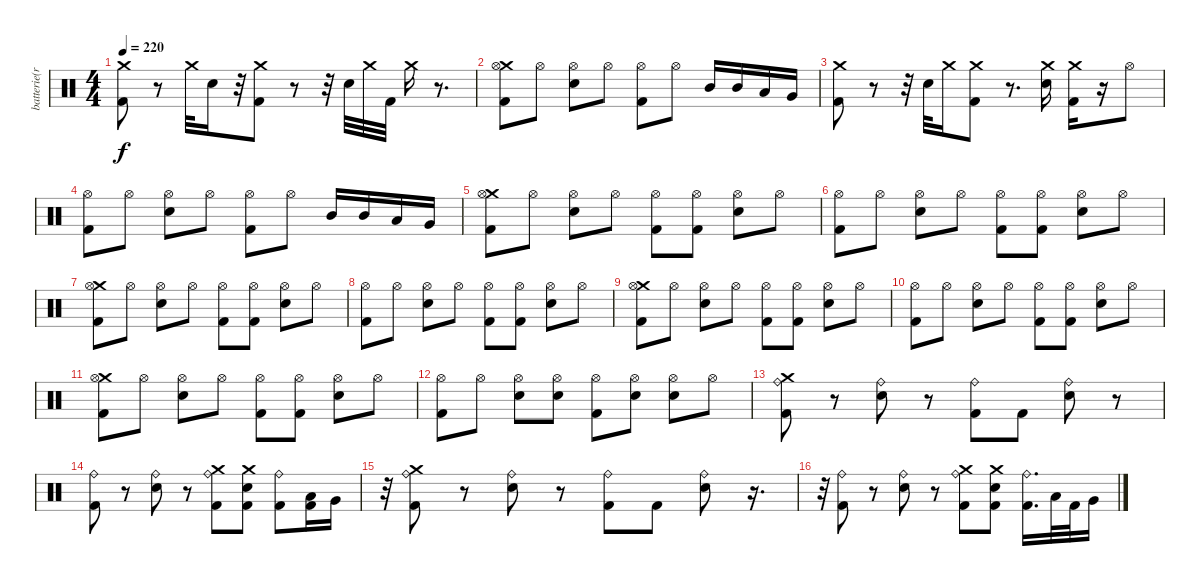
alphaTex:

\track ("batterie(richie)" "batterie(r") {instrument percussion}
\staff {score}
\articulation defaults
\ts (4 4)
\tempo 220
\clef neutral
\ks c
("Kick (hit) 2" "Crash medium (hit)").8{dy f} r.8 "Crash medium (hit)".32 "Electric Snare (hit)".16 r.32 ("Kick (hit) 2" "Crash medium (hit)").8 r.8 r.32 "Electric Snare (hit)".32 "Crash medium (hit)".32 "Kick (hit) 2".32 "Crash medium (hit)".16 r.8{d} |
("Crash medium (hit)" "Kick (hit) 2" "Hi-Hat (open)").8 "Hi-Hat (open)".8 ("Electric Snare (hit)" "Hi-Hat (open)").8 "Hi-Hat (open)".8 ("Kick (hit) 2" "Hi-Hat (open)").8 "Hi-Hat (open)".8 "Mid Tom (hit)".16 "Mid Tom (hit)".16 "Low Tom (hit)".16 "Very Low Tom (hit)".16 |
("Kick (hit) 2" "Crash medium (hit)").8 r.8 r.32 "Electric Snare (hit)".32 "Crash medium (hit)".16 ("Kick (hit) 2" "Crash medium (hit)").8 r.8{d} ("Electric Snare (hit)" "Crash medium (hit)").16 ("Kick (hit) 2" "Crash medium (hit)").16 r.16 "Hi-Hat (open)".8 |
("Kick (hit) 2" "Hi-Hat (open)").8 "Hi-Hat (open)".8 ("Electric Snare (hit)" "Hi-Hat (open)").8 "Hi-Hat (open)".8 ("Kick (hit) 2" "Hi-Hat (open)").8 "Hi-Hat (open)".8 "Mid Tom (hit)".16 "Mid Tom (hit)".16 "Low Tom (hit)".16 "Very Low Tom (hit)".16 |
("Kick (hit) 2" "Crash medium (hit)" "Hi-Hat (open)").8 "Hi-Hat (open)".8 ("Electric Snare (hit)" "Hi-Hat (open)").8 "Hi-Hat (open)".8 ("Hi-Hat (open)" "Kick (hit) 2").8 ("Hi-Hat (open)" "Kick (hit) 2").8 ("Electric Snare (hit)" "Hi-Hat (open)").8 "Hi-Hat (open)".8 |
("Kick (hit) 2" "Hi-Hat (open)").8 "Hi-Hat (open)".8 ("Electric Snare (hit)" "Hi-Hat (open)").8 "Hi-Hat (open)".8 ("Hi-Hat (open)" "Kick (hit) 2").8 ("Hi-Hat (open)" "Kick (hit) 2").8 ("Electric Snare (hit)" "Hi-Hat (open)").8 "Hi-Hat (open)".8 |
("Kick (hit) 2" "Crash medium (hit)" "Hi-Hat (open)").8 "Hi-Hat (open)".8 ("Electric Snare (hit)" "Hi-Hat (open)").8 "Hi-Hat (open)".8 ("Hi-Hat (open)" "Kick (hit) 2").8 ("Hi-Hat (open)" "Kick (hit) 2").8 ("Electric Snare (hit)" "Hi-Hat (open)").8 "Hi-Hat (open)".8 |
("Kick (hit) 2" "Hi-Hat (open)").8 "Hi-Hat (open)".8 ("Electric Snare (hit)" "Hi-Hat (open)").8 "Hi-Hat (open)".8 ("Hi-Hat (open)" "Kick (hit) 2").8 ("Hi-Hat (open)" "Kick (hit) 2").8 ("Electric Snare (hit)" "Hi-Hat (open)").8 "Hi-Hat (open)".8 |
("Kick (hit) 2" "Crash medium (hit)" "Hi-Hat (open)").8 "Hi-Hat (open)".8 ("Electric Snare (hit)" "Hi-Hat (open)").8 "Hi-Hat (open)".8 ("Hi-Hat (open)" "Kick (hit) 2").8 ("Hi-Hat (open)" "Kick (hit) 2").8 ("Electric Snare (hit)" "Hi-Hat (open)").8 "Hi-Hat (open)".8 |
("Kick (hit) 2" "Hi-Hat (open)").8 "Hi-Hat (open)".8 ("Electric Snare (hit)" "Hi-Hat (open)").8 "Hi-Hat (open)".8 ("Hi-Hat (open)" "Kick (hit) 2").8 ("Hi-Hat (open)" "Kick (hit) 2").8 ("Electric Snare (hit)" "Hi-Hat (open)").8 "Hi-Hat (open)".8 |
("Kick (hit) 2" "Crash medium (hit)" "Hi-Hat (open)").8 "Hi-Hat (open)".8 ("Electric Snare (hit)" "Hi-Hat (open)").8 "Hi-Hat (open)".8 ("Hi-Hat (open)" "Kick (hit) 2").8 ("Hi-Hat (open)" "Kick (hit) 2").8 ("Electric Snare (hit)" "Hi-Hat (open)").8 "Hi-Hat (open)".8 |
("Kick (hit) 2" "Hi-Hat (open)").8 "Hi-Hat (open)".8 ("Electric Snare (hit)" "Hi-Hat (open)").8 ("Hi-Hat (open)" "Electric Snare (hit)").8 ("Kick (hit) 2" "Hi-Hat (open)").8 ("Electric Snare (hit)" "Hi-Hat (open)").8 ("Hi-Hat (open)" "Electric Snare (hit)").8 "Hi-Hat (open)".8 |
("Crash medium (hit)" "Ride (bell)" "Kick (hit) 2").8 r.8 ("Ride (bell)" "Electric Snare (hit)").8 r.8 ("Ride (bell)" "Kick (hit) 2").8 "Kick (hit) 2".8 ("Ride (bell)" "Electric Snare (hit)").8 r.8 |
("Ride (bell)" "Kick (hit) 2").8 r.8 ("Ride (bell)" "Electric Snare (hit)").8 r.8 ("Crash medium (hit)" "Ride (bell)" "Kick (hit) 2").8 ("Electric Snare (hit)" "Crash medium (hit)" "Kick (hit) 2").8 ("Kick (hit) 2" "Ride (bell)").8 ("Low Tom (hit)" "Kick (hit) 2").16 "Very Low Tom (hit)".16 |
r.32 ("Crash medium (hit)" "Ride (bell)" "Kick (hit) 2").8 r.8 ("Ride (bell)" "Electric Snare (hit)").8 r.8 ("Ride (bell)" "Kick (hit) 2").8 "Kick (hit) 2".8 ("Ride (bell)" "Electric Snare (hit)").8 r.16{d} |
r.32 ("Ride (bell)" "Kick (hit) 2").8 r.8 ("Ride (bell)" "Electric Snare (hit)").8 r.8 ("Crash medium (hit)" "Ride (bell)" "Kick (hit) 2").8 ("Electric Snare (hit)" "Crash medium (hit)" "Kick (hit) 2").8 ("Kick (hit) 2" "Ride (bell)").16{d} "Low Tom (hit)".32 "Kick (hit) 2".32 "Very Low Tom (hit)".16
